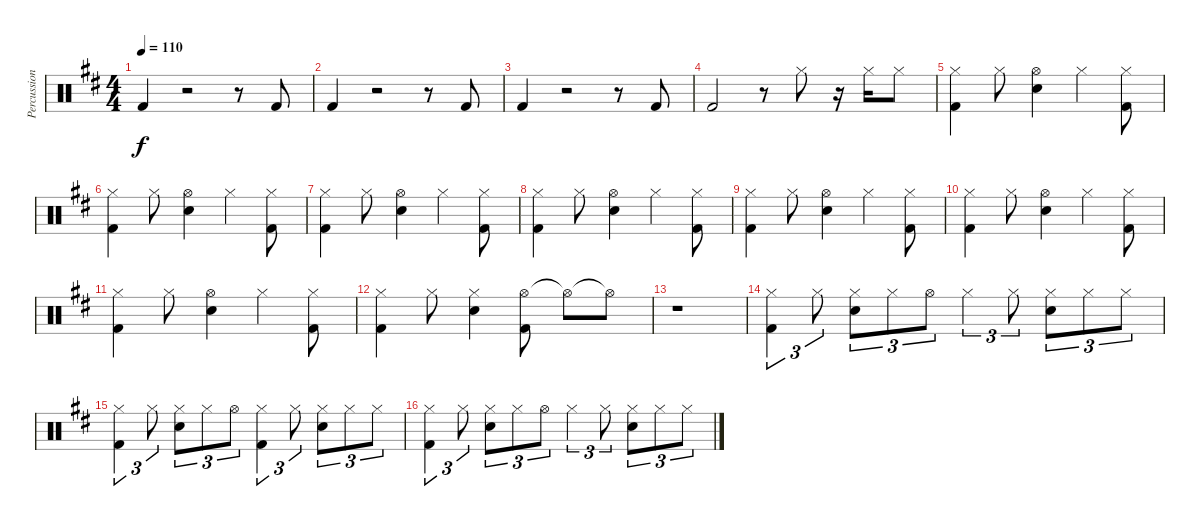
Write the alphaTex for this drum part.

\track ("Percussion" "Percussion") {instrument percussion}
\staff {score}
\articulation defaults
\ts (4 4)
\tempo 110
\clef neutral
\ks d "Kick (hit) 2".4{dy f}
r.2 r.8 "Kick (hit) 2".8 |
"Kick (hit) 2".4 r.2 r.8 "Kick (hit) 2".8 |
"Kick (hit) 2".4 r.2 r.8 "Kick (hit) 2".8 |
"Kick (hit) 2".2 r.8 "Hi-Hat (closed)".8 r.16 "Hi-Hat (closed)".16 "Hi-Hat (closed)".8 |
("Hi-Hat (closed)" "Kick (hit) 2").4 "Hi-Hat (closed)".8 ("Hi-Hat (open)" "Snare (hit) 2").4 "Hi-Hat (closed)".4 ("Hi-Hat (closed)" "Kick (hit) 2").8 |
("Hi-Hat (closed)" "Kick (hit) 2").4 "Hi-Hat (closed)".8 ("Hi-Hat (open)" "Snare (hit) 2").4 "Hi-Hat (closed)".4 ("Hi-Hat (closed)" "Kick (hit) 2").8 |
("Hi-Hat (closed)" "Kick (hit) 2").4 "Hi-Hat (closed)".8 ("Hi-Hat (open)" "Snare (hit) 2").4 "Hi-Hat (closed)".4 ("Hi-Hat (closed)" "Kick (hit) 2").8 |
("Hi-Hat (closed)" "Kick (hit) 2").4 "Hi-Hat (closed)".8 ("Hi-Hat (open)" "Snare (hit) 2").4 "Hi-Hat (closed)".4 ("Hi-Hat (closed)" "Kick (hit) 2").8 |
("Hi-Hat (closed)" "Kick (hit) 2").4 "Hi-Hat (closed)".8 ("Hi-Hat (open)" "Snare (hit) 2").4 "Hi-Hat (closed)".4 ("Hi-Hat (closed)" "Kick (hit) 2").8 |
("Hi-Hat (closed)" "Kick (hit) 2").4 "Hi-Hat (closed)".8 ("Hi-Hat (open)" "Snare (hit) 2").4 "Hi-Hat (closed)".4 ("Hi-Hat (closed)" "Kick (hit) 2").8 |
("Hi-Hat (closed)" "Kick (hit) 2").4 "Hi-Hat (closed)".8 ("Hi-Hat (open)" "Snare (hit) 2").4 "Hi-Hat (closed)".4 ("Hi-Hat (closed)" "Kick (hit) 2").8 |
("Hi-Hat (closed)" "Kick (hit) 2").4 "Hi-Hat (closed)".8 ("Hi-Hat (closed)" "Snare (hit) 2").4 ("Hi-Hat (open)" "Kick (hit) 2").8 "Hi-Hat (open)"{t}.8 "Hi-Hat (open)"{t}.8 |
r.1 |
("Hi-Hat (closed)" "Kick (hit) 2").4{tu (3 2)} "Hi-Hat (closed)".8{tu (3 2)} ("Hi-Hat (closed)" "Snare (hit) 2").8{tu (3 2)} "Hi-Hat (closed)".8{tu (3 2)} "Hi-Hat (open)".8{tu (3 2)} "Hi-Hat (closed)".4{tu (3 2)} "Hi-Hat (closed)".8{tu (3 2)} ("Hi-Hat (closed)" "Snare (hit) 2").8{tu (3 2)} "Hi-Hat (closed)".8{tu (3 2)} "Hi-Hat (closed)".8{tu (3 2)} |
("Hi-Hat (closed)" "Kick (hit) 2").4{tu (3 2)} "Hi-Hat (closed)".8{tu (3 2)} ("Hi-Hat (closed)" "Snare (hit) 2").8{tu (3 2)} "Hi-Hat (closed)".8{tu (3 2)} "Hi-Hat (open)".8{tu (3 2)} ("Hi-Hat (closed)" "Kick (hit) 2").4{tu (3 2)} "Hi-Hat (closed)".8{tu (3 2)} ("Hi-Hat (closed)" "Snare (hit) 2").8{tu (3 2)} "Hi-Hat (closed)".8{tu (3 2)} "Hi-Hat (closed)".8{tu (3 2)} |
("Hi-Hat (closed)" "Kick (hit) 2").4{tu (3 2)} "Hi-Hat (closed)".8{tu (3 2)} ("Hi-Hat (closed)" "Snare (hit) 2").8{tu (3 2)} "Hi-Hat (closed)".8{tu (3 2)} "Hi-Hat (open)".8{tu (3 2)} "Hi-Hat (closed)".4{tu (3 2)} "Hi-Hat (closed)".8{tu (3 2)} ("Hi-Hat (closed)" "Snare (hit) 2").8{tu (3 2)} "Hi-Hat (closed)".8{tu (3 2)} "Hi-Hat (closed)".8{tu (3 2)}
